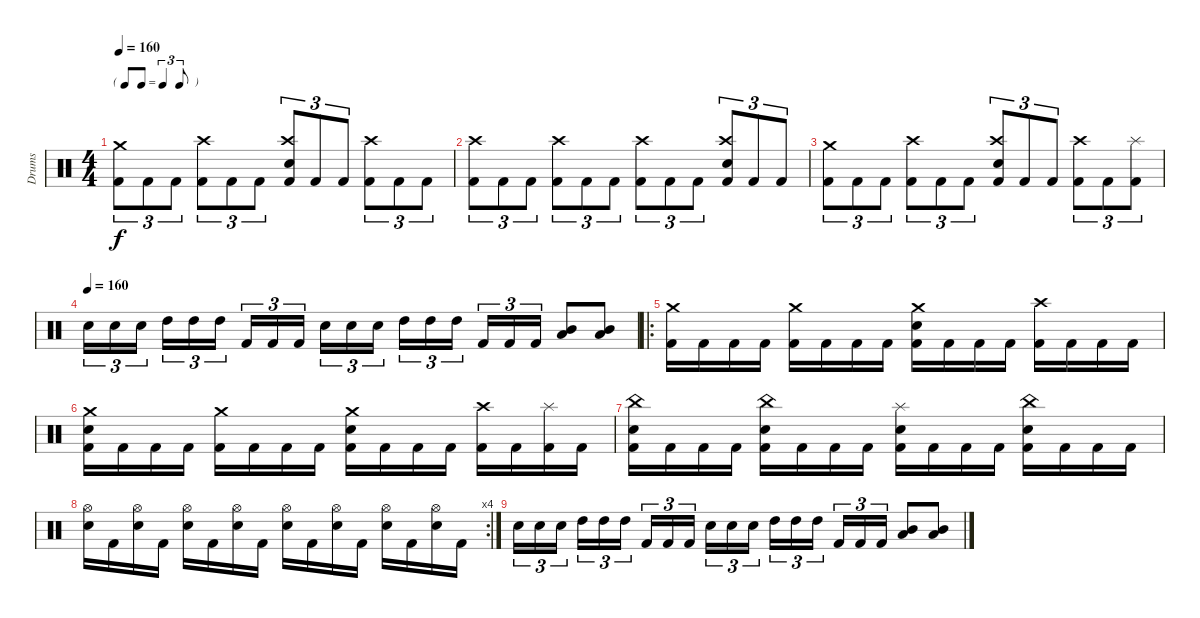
\track ("Drums" "Drums") {instrument percussion}
\staff {score}
\articulation defaults
\ts (4 4)
\tf triplet8th
\tempo 160
\clef neutral
\ks c
("Crash medium (hit)" "Kick (hit) 2").8{tu (3 2) dy f} "Kick (hit) 2".8{tu (3 2)} "Kick (hit) 2".8{tu (3 2)} ("Crash high (hit)" "Kick (hit) 2").8{tu (3 2)} "Kick (hit) 2".8{tu (3 2)} "Kick (hit) 2".8{tu (3 2)} ("Crash high (hit)" "Electric Snare (hit)" "Kick (hit) 2").8{tu (3 2)} "Kick (hit) 2".8{tu (3 2)} "Kick (hit) 2".8{tu (3 2)} ("Crash high (hit)" "Kick (hit) 2").8{tu (3 2)} "Kick (hit) 2".8{tu (3 2)} "Kick (hit) 2".8{tu (3 2)} |
("Crash high (hit)" "Kick (hit) 2").8{tu (3 2)} "Kick (hit) 2".8{tu (3 2)} "Kick (hit) 2".8{tu (3 2)} ("Crash high (hit)" "Kick (hit) 2").8{tu (3 2)} "Kick (hit) 2".8{tu (3 2)} "Kick (hit) 2".8{tu (3 2)} ("Crash high (hit)" "Kick (hit) 2").8{tu (3 2)} "Kick (hit) 2".8{tu (3 2)} "Kick (hit) 2".8{tu (3 2)} ("Crash high (hit)" "Electric Snare (hit)" "Kick (hit) 2").8{tu (3 2)} "Kick (hit) 2".8{tu (3 2)} "Kick (hit) 2".8{tu (3 2)} |
("Crash medium (hit)" "Kick (hit) 2").8{tu (3 2)} "Kick (hit) 2".8{tu (3 2)} "Kick (hit) 2".8{tu (3 2)} ("Crash high (hit)" "Kick (hit) 2").8{tu (3 2)} "Kick (hit) 2".8{tu (3 2)} "Kick (hit) 2".8{tu (3 2)} ("Crash high (hit)" "Electric Snare (hit)" "Kick (hit) 2").8{tu (3 2)} "Kick (hit) 2".8{tu (3 2)} "Kick (hit) 2".8{tu (3 2)} ("Crash high (hit)" "Kick (hit) 2").8{tu (3 2)} "Kick (hit) 2".8{tu (3 2)} ("Splash (hit)" "Kick (hit) 2").8{tu (3 2)} |
\tempo (160)
"Electric Snare (hit)".16{tu (3 2)} "Electric Snare (hit)".16{tu (3 2)} "Electric Snare (hit)".16{tu (3 2)} "High Tom (hit)".16{tu (3 2)} "High Tom (hit)".16{tu (3 2)} "High Tom (hit)".16{tu (3 2)} "Kick (hit) 2".16{tu (3 2)} "Kick (hit) 2".16{tu (3 2)} "Kick (hit) 2".16{tu (3 2)} "Electric Snare (hit)".16{tu (3 2)} "Electric Snare (hit)".16{tu (3 2)} "Electric Snare (hit)".16{tu (3 2)} "High Tom (hit)".16{tu (3 2)} "High Tom (hit)".16{tu (3 2)} "High Tom (hit)".16{tu (3 2)} "Kick (hit) 2".16{tu (3 2)} "Kick (hit) 2".16{tu (3 2)} "Kick (hit) 2".16{tu (3 2)} ("Mid Tom (hit)" "Low Tom (hit)").8 ("Mid Tom (hit)" "Low Tom (hit)").8 |
\ro
("Crash medium (hit)" "Kick (hit) 2").16 "Kick (hit) 2".16 "Kick (hit) 2".16 "Kick (hit) 2".16 ("Crash medium (hit)" "Kick (hit) 2").16 "Kick (hit) 2".16 "Kick (hit) 2".16 "Kick (hit) 2".16 ("Crash medium (hit)" "Electric Snare (hit)" "Kick (hit) 2").16 "Kick (hit) 2".16 "Kick (hit) 2".16 "Kick (hit) 2".16 ("Crash high (hit)" "Kick (hit) 2").16 "Kick (hit) 2".16 "Kick (hit) 2".16 "Kick (hit) 2".16 |
("Crash medium (hit)" "Electric Snare (hit)" "Kick (hit) 2").16 "Kick (hit) 2".16 "Kick (hit) 2".16 "Kick (hit) 2".16 ("Crash medium (hit)" "Kick (hit) 2").16 "Kick (hit) 2".16 "Kick (hit) 2".16 "Kick (hit) 2".16 ("Crash medium (hit)" "Electric Snare (hit)" "Kick (hit) 2").16 "Kick (hit) 2".16 "Kick (hit) 2".16 "Kick (hit) 2".16 ("Crash high (hit)" "Kick (hit) 2").16 "Kick (hit) 2".16 ("Splash (hit)" "Kick (hit) 2").16 "Kick (hit) 2".16 |
("China (hit)" "Electric Snare (hit)" "Kick (hit) 2").16 "Kick (hit) 2".16 "Kick (hit) 2".16 "Kick (hit) 2".16 ("China (hit)" "Electric Snare (hit)" "Kick (hit) 2").16 "Kick (hit) 2".16 "Kick (hit) 2".16 "Kick (hit) 2".16 ("Splash (hit)" "Electric Snare (hit)" "Kick (hit) 2").16 "Kick (hit) 2".16 "Kick (hit) 2".16 "Kick (hit) 2".16 ("China (hit)" "Electric Snare (hit)" "Kick (hit) 2").16 "Kick (hit) 2".16 "Kick (hit) 2".16 "Kick (hit) 2".16 |
\rc 4
("Hi-Hat (open)" "Electric Snare (hit)").16 "Kick (hit) 2".16 ("Hi-Hat (open)" "Electric Snare (hit)").16 "Kick (hit) 2".16 ("Hi-Hat (open)" "Electric Snare (hit)").16 "Kick (hit) 2".16 ("Hi-Hat (open)" "Electric Snare (hit)").16 "Kick (hit) 2".16 ("Hi-Hat (open)" "Electric Snare (hit)").16 "Kick (hit) 2".16 ("Hi-Hat (open)" "Electric Snare (hit)").16 "Kick (hit) 2".16 ("Hi-Hat (open)" "Electric Snare (hit)").16 "Kick (hit) 2".16 ("Hi-Hat (open)" "Electric Snare (hit)").16 "Kick (hit) 2".16 |
"Electric Snare (hit)".16{tu (3 2)} "Electric Snare (hit)".16{tu (3 2)} "Electric Snare (hit)".16{tu (3 2)} "High Tom (hit)".16{tu (3 2)} "High Tom (hit)".16{tu (3 2)} "High Tom (hit)".16{tu (3 2)} "Kick (hit) 2".16{tu (3 2)} "Kick (hit) 2".16{tu (3 2)} "Kick (hit) 2".16{tu (3 2)} "Electric Snare (hit)".16{tu (3 2)} "Electric Snare (hit)".16{tu (3 2)} "Electric Snare (hit)".16{tu (3 2)} "High Tom (hit)".16{tu (3 2)} "High Tom (hit)".16{tu (3 2)} "High Tom (hit)".16{tu (3 2)} "Kick (hit) 2".16{tu (3 2)} "Kick (hit) 2".16{tu (3 2)} "Kick (hit) 2".16{tu (3 2)} ("Mid Tom (hit)" "Low Tom (hit)").8 ("Mid Tom (hit)" "Low Tom (hit)").8
